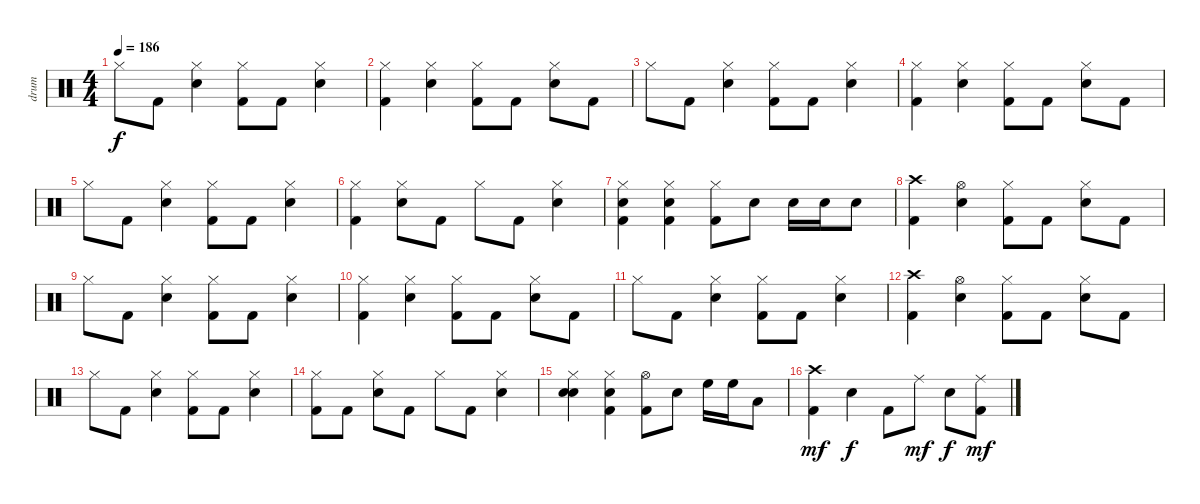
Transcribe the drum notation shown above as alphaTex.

\track ("drum" "drum") {instrument percussion}
\staff {score}
\articulation defaults
\ts (4 4)
\tempo 186
\clef neutral
\ks c "Hi-Hat (closed)".8{dy f} "Kick (hit) 2".8
("Hi-Hat (closed)" "Snare (hit) 2").4 ("Hi-Hat (closed)" "Kick (hit) 2").8 "Kick (hit) 2".8 ("Hi-Hat (closed)" "Snare (hit) 2").4 |
("Hi-Hat (closed)" "Kick (hit) 2").4 ("Hi-Hat (closed)" "Snare (hit) 2").4 ("Hi-Hat (closed)" "Kick (hit) 2").8 "Kick (hit) 2".8 ("Hi-Hat (closed)" "Snare (hit) 2").8 "Kick (hit) 2".8 |
"Hi-Hat (closed)".8 "Kick (hit) 2".8 ("Hi-Hat (closed)" "Snare (hit) 2").4 ("Hi-Hat (closed)" "Kick (hit) 2").8 "Kick (hit) 2".8 ("Hi-Hat (closed)" "Snare (hit) 2").4 |
("Hi-Hat (closed)" "Kick (hit) 2").4 ("Hi-Hat (closed)" "Snare (hit) 2").4 ("Hi-Hat (closed)" "Kick (hit) 2").8 "Kick (hit) 2".8 ("Hi-Hat (closed)" "Snare (hit) 2").8 "Kick (hit) 2".8 |
"Hi-Hat (closed)".8 "Kick (hit) 2".8 ("Hi-Hat (closed)" "Snare (hit) 2").4 ("Hi-Hat (closed)" "Kick (hit) 2").8 "Kick (hit) 2".8 ("Hi-Hat (closed)" "Snare (hit) 2").4 |
("Hi-Hat (closed)" "Kick (hit) 2").4 ("Hi-Hat (closed)" "Snare (hit) 2").8 "Kick (hit) 2".8 "Hi-Hat (closed)".8 "Kick (hit) 2".8 ("Hi-Hat (closed)" "Snare (hit) 2").4 |
("Hi-Hat (closed)" "Snare (hit) 2" "Kick (hit) 2").4 ("Hi-Hat (closed)" "Snare (hit) 2" "Kick (hit) 2").4 ("Hi-Hat (closed)" "Kick (hit) 2").8 "Snare (hit) 2".8 "Snare (hit) 2".16 "Snare (hit) 2".16 "Snare (hit) 2".8 |
("Crash high (hit)" "Kick (hit) 2").4 ("Hi-Hat (open)" "Snare (hit) 2").4 ("Hi-Hat (closed)" "Kick (hit) 2").8 "Kick (hit) 2".8 ("Hi-Hat (closed)" "Snare (hit) 2").8 "Kick (hit) 2".8 |
"Hi-Hat (closed)".8 "Kick (hit) 2".8 ("Hi-Hat (closed)" "Snare (hit) 2").4 ("Hi-Hat (closed)" "Kick (hit) 2").8 "Kick (hit) 2".8 ("Hi-Hat (closed)" "Snare (hit) 2").4 |
("Hi-Hat (closed)" "Kick (hit) 2").4 ("Hi-Hat (closed)" "Snare (hit) 2").4 ("Hi-Hat (closed)" "Kick (hit) 2").8 "Kick (hit) 2".8 ("Hi-Hat (closed)" "Snare (hit) 2").8 "Kick (hit) 2".8 |
"Hi-Hat (closed)".8 "Kick (hit) 2".8 ("Hi-Hat (closed)" "Snare (hit) 2").4 ("Hi-Hat (closed)" "Kick (hit) 2").8 "Kick (hit) 2".8 ("Hi-Hat (closed)" "Snare (hit) 2").4 |
("Crash high (hit)" "Kick (hit) 2").4 ("Hi-Hat (open)" "Snare (hit) 2").4 ("Hi-Hat (closed)" "Kick (hit) 2").8 "Kick (hit) 2".8 ("Hi-Hat (closed)" "Snare (hit) 2").8 "Kick (hit) 2".8 |
"Hi-Hat (closed)".8 "Kick (hit) 2".8 ("Hi-Hat (closed)" "Snare (hit) 2").4 ("Hi-Hat (closed)" "Kick (hit) 2").8 "Kick (hit) 2".8 ("Hi-Hat (closed)" "Snare (hit) 2").4 |
("Hi-Hat (closed)" "Kick (hit) 2").8 "Kick (hit) 2".8 ("Hi-Hat (closed)" "Snare (hit) 2").8 "Kick (hit) 2".8 "Hi-Hat (closed)".8 "Kick (hit) 2".8 ("Hi-Hat (closed)" "Snare (hit) 2").4 |
("Hi-Hat (closed)" "Snare (hit) 2" "Snare (hit) 2").4 ("Hi-Hat (closed)" "Snare (hit) 2" "Kick (hit) 2").4 ("Hi-Hat (open)" "Kick (hit) 2").8 "Snare (hit) 2".8 "High Floor Tom (hit)".16 "High Floor Tom (hit)".16 "Low Floor Tom (hit)".8 |
("Crash high (hit)" "Kick (hit) 2").4{dy mf} "Snare (hit) 2".4{dy f} "Kick (hit) 2".8 "Ride (middle)".8{dy mf} "Snare (hit) 2".8{dy f} ("Ride (middle)" "Kick (hit) 2").8{dy mf}
